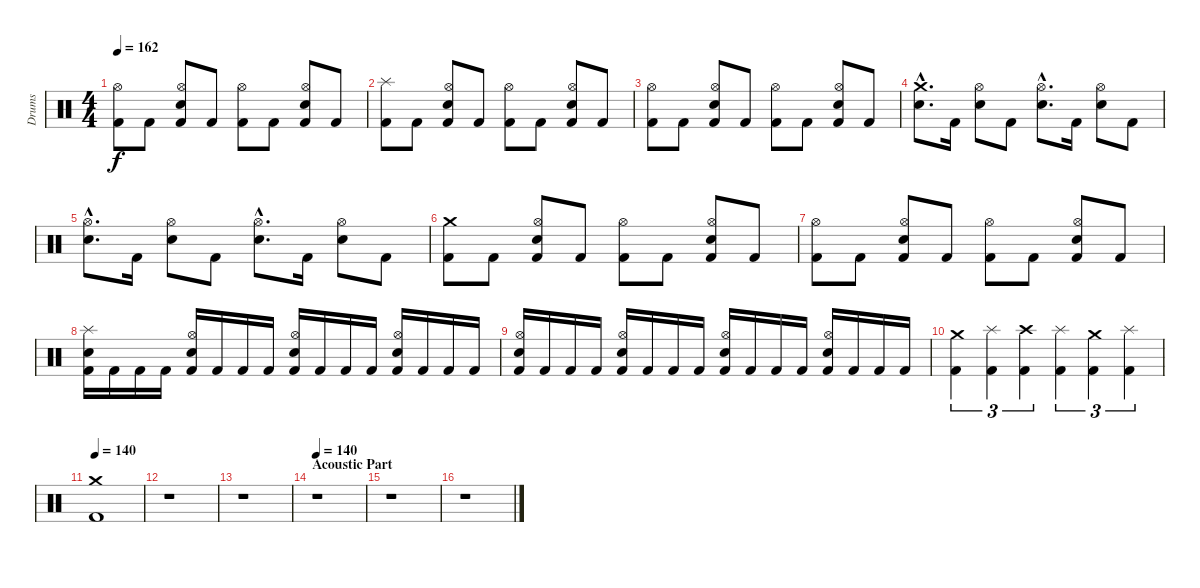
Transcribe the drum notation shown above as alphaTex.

\track ("Drums" "Drums") {instrument percussion}
\staff {score}
\articulation defaults
\ts (4 4)
\tempo 162
\clef neutral
\ks c
("Kick (hit) 2" "Hi-Hat (open)").8{dy f} "Kick (hit) 2".8 ("Kick (hit) 2" "Electric Snare (hit)" "Hi-Hat (open)").8 "Kick (hit) 2".8 ("Kick (hit) 2" "Hi-Hat (open)").8 "Kick (hit) 2".8 ("Kick (hit) 2" "Electric Snare (hit)" "Hi-Hat (open)").8 "Kick (hit) 2".8 |
("Kick (hit) 2" "Splash (hit)").8 "Kick (hit) 2".8 ("Kick (hit) 2" "Electric Snare (hit)" "Hi-Hat (open)").8 "Kick (hit) 2".8 ("Kick (hit) 2" "Hi-Hat (open)").8 "Kick (hit) 2".8 ("Kick (hit) 2" "Electric Snare (hit)" "Hi-Hat (open)").8 "Kick (hit) 2".8 |
("Kick (hit) 2" "Hi-Hat (open)").8 "Kick (hit) 2".8 ("Kick (hit) 2" "Electric Snare (hit)" "Hi-Hat (open)").8 "Kick (hit) 2".8 ("Kick (hit) 2" "Hi-Hat (open)").8 "Kick (hit) 2".8 ("Kick (hit) 2" "Electric Snare (hit)" "Hi-Hat (open)").8 "Kick (hit) 2".8 |
\section ("" "")
("Electric Snare (hit)"{hac} "Crash medium (hit)"{hac}).8{d} "Kick (hit) 2".16 ("Electric Snare (hit)" "Hi-Hat (open)").8 "Kick (hit) 2".8 ("Electric Snare (hit)"{hac} "Hi-Hat (open)"{hac}).8{d} "Kick (hit) 2".16 ("Electric Snare (hit)" "Hi-Hat (open)").8 "Kick (hit) 2".8 |
("Electric Snare (hit)"{hac} "Hi-Hat (open)"{hac}).8{d} "Kick (hit) 2".16 ("Electric Snare (hit)" "Hi-Hat (open)").8 "Kick (hit) 2".8 ("Electric Snare (hit)"{hac} "Hi-Hat (open)"{hac}).8{d} "Kick (hit) 2".16 ("Electric Snare (hit)" "Hi-Hat (open)").8 "Kick (hit) 2".8 |
("Kick (hit) 2" "Crash medium (hit)").8 "Kick (hit) 2".8 ("Kick (hit) 2" "Electric Snare (hit)" "Hi-Hat (open)").8 "Kick (hit) 2".8 ("Kick (hit) 2" "Hi-Hat (open)").8 "Kick (hit) 2".8 ("Kick (hit) 2" "Electric Snare (hit)" "Hi-Hat (open)").8 "Kick (hit) 2".8 |
("Kick (hit) 2" "Hi-Hat (open)").8 "Kick (hit) 2".8 ("Kick (hit) 2" "Electric Snare (hit)" "Hi-Hat (open)").8 "Kick (hit) 2".8 ("Kick (hit) 2" "Hi-Hat (open)").8 "Kick (hit) 2".8 ("Kick (hit) 2" "Electric Snare (hit)" "Hi-Hat (open)").8 "Kick (hit) 2".8 |
("Kick (hit) 2" "Electric Snare (hit)" "Splash (hit)").16 "Kick (hit) 2".16 "Kick (hit) 2".16 "Kick (hit) 2".16 ("Kick (hit) 2" "Electric Snare (hit)" "Hi-Hat (open)").16 "Kick (hit) 2".16 "Kick (hit) 2".16 "Kick (hit) 2".16 ("Kick (hit) 2" "Electric Snare (hit)" "Hi-Hat (open)").16 "Kick (hit) 2".16 "Kick (hit) 2".16 "Kick (hit) 2".16 ("Kick (hit) 2" "Electric Snare (hit)" "Hi-Hat (open)").16 "Kick (hit) 2".16 "Kick (hit) 2".16 "Kick (hit) 2".16 |
("Kick (hit) 2" "Electric Snare (hit)" "Hi-Hat (open)").16 "Kick (hit) 2".16 "Kick (hit) 2".16 "Kick (hit) 2".16 ("Kick (hit) 2" "Electric Snare (hit)" "Hi-Hat (open)").16 "Kick (hit) 2".16 "Kick (hit) 2".16 "Kick (hit) 2".16 ("Kick (hit) 2" "Electric Snare (hit)" "Hi-Hat (open)").16 "Kick (hit) 2".16 "Kick (hit) 2".16 "Kick (hit) 2".16 ("Kick (hit) 2" "Electric Snare (hit)" "Hi-Hat (open)").16 "Kick (hit) 2".16 "Kick (hit) 2".16 "Kick (hit) 2".16 |
\section ("" "")
("Kick (hit) 2" "Crash medium (hit)").4{tu (3 2)} ("Kick (hit) 2" "Splash (hit)").4{tu (3 2)} ("Kick (hit) 2" "Crash high (hit)").4{tu (3 2)} ("Kick (hit) 2" "Splash (hit)").4{tu (3 2)} ("Kick (hit) 2" "Crash medium (hit)").4{tu (3 2)} ("Kick (hit) 2" "Splash (hit)").4{tu (3 2)} |
\tempo 140
("Kick (hit) 2" "Crash medium (hit)").1 |
r.1 |
r.1 |
\section ("" "Acoustic Part")
\tempo 140
r.1 |
r.1 |
r.1
